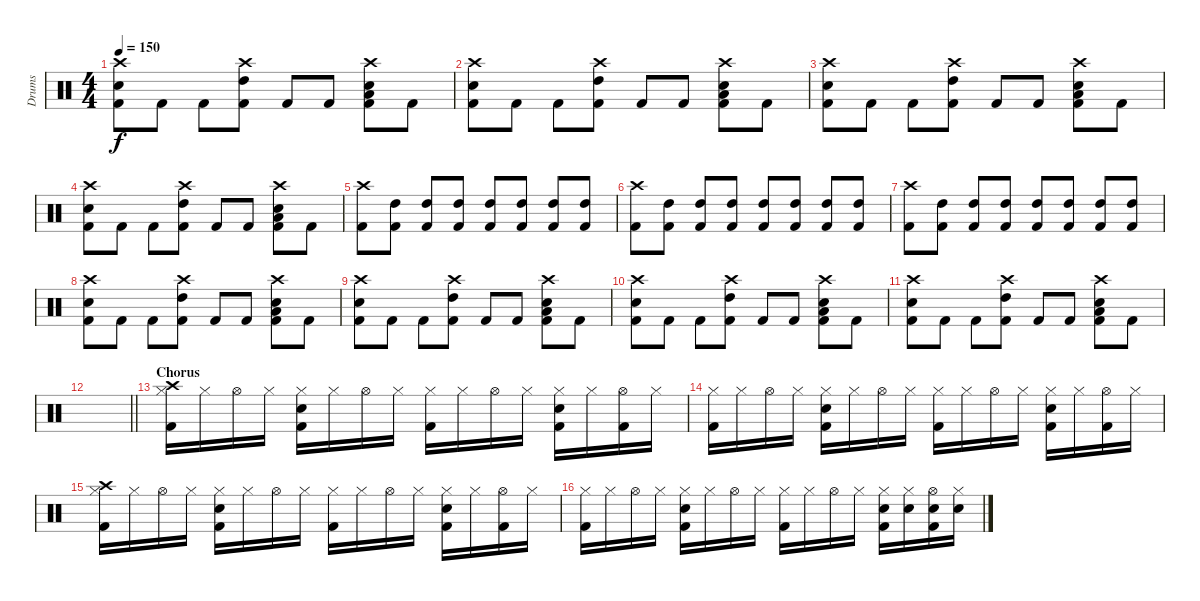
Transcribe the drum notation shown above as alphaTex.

\track ("Drums" "Drums") {instrument percussion}
\staff {score}
\articulation defaults
\ts (4 4)
\tempo 150
\clef neutral
\ks c
("Crash high (hit)" "Electric Snare (hit)" "Kick (hit) 2").8{dy f} "Kick (hit) 2".8 "Kick (hit) 2".8 ("Crash high (hit)" "High Tom (hit)" "Kick (hit) 2").8 "Kick (hit) 2".8 "Kick (hit) 2".8 ("Crash high (hit)" "Low Tom (hit)" "Electric Snare (hit)" "Kick (hit) 2").8 "Kick (hit) 2".8 |
("Crash high (hit)" "Electric Snare (hit)" "Kick (hit) 2").8 "Kick (hit) 2".8 "Kick (hit) 2".8 ("Crash high (hit)" "High Tom (hit)" "Kick (hit) 2").8 "Kick (hit) 2".8 "Kick (hit) 2".8 ("Crash high (hit)" "Low Tom (hit)" "Electric Snare (hit)" "Kick (hit) 2").8 "Kick (hit) 2".8 |
("Crash high (hit)" "Electric Snare (hit)" "Kick (hit) 2").8 "Kick (hit) 2".8 "Kick (hit) 2".8 ("Crash high (hit)" "High Tom (hit)" "Kick (hit) 2").8 "Kick (hit) 2".8 "Kick (hit) 2".8 ("Crash high (hit)" "Low Tom (hit)" "Electric Snare (hit)" "Kick (hit) 2").8 "Kick (hit) 2".8 |
("Crash high (hit)" "Electric Snare (hit)" "Kick (hit) 2").8 "Kick (hit) 2".8 "Kick (hit) 2".8 ("Crash high (hit)" "High Tom (hit)" "Kick (hit) 2").8 "Kick (hit) 2".8 "Kick (hit) 2".8 ("Crash high (hit)" "Low Tom (hit)" "Electric Snare (hit)" "Kick (hit) 2").8 "Kick (hit) 2".8 |
("Crash high (hit)" "Kick (hit) 2").8 ("High Tom (hit)" "Kick (hit) 2").8 ("High Tom (hit)" "Kick (hit) 2").8 ("High Tom (hit)" "Kick (hit) 2").8 ("High Tom (hit)" "Kick (hit) 2").8 ("High Tom (hit)" "Kick (hit) 2").8 ("High Tom (hit)" "Kick (hit) 2").8 ("High Tom (hit)" "Kick (hit) 2").8 |
("Crash high (hit)" "Kick (hit) 2").8 ("High Tom (hit)" "Kick (hit) 2").8 ("High Tom (hit)" "Kick (hit) 2").8 ("High Tom (hit)" "Kick (hit) 2").8 ("High Tom (hit)" "Kick (hit) 2").8 ("High Tom (hit)" "Kick (hit) 2").8 ("High Tom (hit)" "Kick (hit) 2").8 ("High Tom (hit)" "Kick (hit) 2").8 |
("Crash high (hit)" "Kick (hit) 2").8 ("High Tom (hit)" "Kick (hit) 2").8 ("High Tom (hit)" "Kick (hit) 2").8 ("High Tom (hit)" "Kick (hit) 2").8 ("High Tom (hit)" "Kick (hit) 2").8 ("High Tom (hit)" "Kick (hit) 2").8 ("High Tom (hit)" "Kick (hit) 2").8 ("High Tom (hit)" "Kick (hit) 2").8 |
("Crash high (hit)" "Electric Snare (hit)" "Kick (hit) 2").8 "Kick (hit) 2".8 "Kick (hit) 2".8 ("Crash high (hit)" "High Tom (hit)" "Kick (hit) 2").8 "Kick (hit) 2".8 "Kick (hit) 2".8 ("Crash high (hit)" "Low Tom (hit)" "Electric Snare (hit)" "Kick (hit) 2").8 "Kick (hit) 2".8 |
("Crash high (hit)" "Electric Snare (hit)" "Kick (hit) 2").8 "Kick (hit) 2".8 "Kick (hit) 2".8 ("Crash high (hit)" "High Tom (hit)" "Kick (hit) 2").8 "Kick (hit) 2".8 "Kick (hit) 2".8 ("Crash high (hit)" "Low Tom (hit)" "Electric Snare (hit)" "Kick (hit) 2").8 "Kick (hit) 2".8 |
("Crash high (hit)" "Electric Snare (hit)" "Kick (hit) 2").8 "Kick (hit) 2".8 "Kick (hit) 2".8 ("Crash high (hit)" "High Tom (hit)" "Kick (hit) 2").8 "Kick (hit) 2".8 "Kick (hit) 2".8 ("Crash high (hit)" "Low Tom (hit)" "Electric Snare (hit)" "Kick (hit) 2").8 "Kick (hit) 2".8 |
("Crash high (hit)" "Electric Snare (hit)" "Kick (hit) 2").8 "Kick (hit) 2".8 "Kick (hit) 2".8 ("Crash high (hit)" "High Tom (hit)" "Kick (hit) 2").8 "Kick (hit) 2".8 "Kick (hit) 2".8 ("Crash high (hit)" "Low Tom (hit)" "Electric Snare (hit)" "Kick (hit) 2").8 "Kick (hit) 2".8 |
\barLineRight lightlight
|
\section ("" "Chorus")
("Crash high (hit)" "Hi-Hat (closed)" "Kick (hit) 2").16 "Hi-Hat (closed)".16 "Hi-Hat (open)".16 "Hi-Hat (closed)".16 ("Hi-Hat (closed)" "Electric Snare (hit)" "Kick (hit) 2").16 "Hi-Hat (closed)".16 "Hi-Hat (open)".16 "Hi-Hat (closed)".16 ("Hi-Hat (closed)" "Kick (hit) 2").16 "Hi-Hat (closed)".16 "Hi-Hat (open)".16 "Hi-Hat (closed)".16 ("Hi-Hat (closed)" "Electric Snare (hit)" "Kick (hit) 2").16 "Hi-Hat (closed)".16 ("Hi-Hat (open)" "Kick (hit) 2").16 "Hi-Hat (closed)".16 |
("Hi-Hat (closed)" "Kick (hit) 2").16 "Hi-Hat (closed)".16 "Hi-Hat (open)".16 "Hi-Hat (closed)".16 ("Hi-Hat (closed)" "Electric Snare (hit)" "Kick (hit) 2").16 "Hi-Hat (closed)".16 "Hi-Hat (open)".16 "Hi-Hat (closed)".16 ("Hi-Hat (closed)" "Kick (hit) 2").16 "Hi-Hat (closed)".16 "Hi-Hat (open)".16 "Hi-Hat (closed)".16 ("Hi-Hat (closed)" "Electric Snare (hit)" "Kick (hit) 2").16 "Hi-Hat (closed)".16 ("Hi-Hat (open)" "Kick (hit) 2").16 "Hi-Hat (closed)".16 |
("Crash high (hit)" "Hi-Hat (closed)" "Kick (hit) 2").16 "Hi-Hat (closed)".16 "Hi-Hat (open)".16 "Hi-Hat (closed)".16 ("Hi-Hat (closed)" "Electric Snare (hit)" "Kick (hit) 2").16 "Hi-Hat (closed)".16 "Hi-Hat (open)".16 "Hi-Hat (closed)".16 ("Hi-Hat (closed)" "Kick (hit) 2").16 "Hi-Hat (closed)".16 "Hi-Hat (open)".16 "Hi-Hat (closed)".16 ("Hi-Hat (closed)" "Electric Snare (hit)" "Kick (hit) 2").16 "Hi-Hat (closed)".16 ("Hi-Hat (open)" "Kick (hit) 2").16 "Hi-Hat (closed)".16 |
("Hi-Hat (closed)" "Kick (hit) 2").16 "Hi-Hat (closed)".16 "Hi-Hat (open)".16 "Hi-Hat (closed)".16 ("Hi-Hat (closed)" "Electric Snare (hit)" "Kick (hit) 2").16 "Hi-Hat (closed)".16 "Hi-Hat (open)".16 "Hi-Hat (closed)".16 ("Hi-Hat (closed)" "Kick (hit) 2").16 "Hi-Hat (closed)".16 "Hi-Hat (open)".16 "Hi-Hat (closed)".16 ("Hi-Hat (closed)" "Electric Snare (hit)" "Kick (hit) 2").16 ("Hi-Hat (closed)" "Electric Snare (hit)").16 ("Hi-Hat (open)" "Electric Snare (hit)" "Kick (hit) 2").16 ("Hi-Hat (closed)" "Electric Snare (hit)").16
